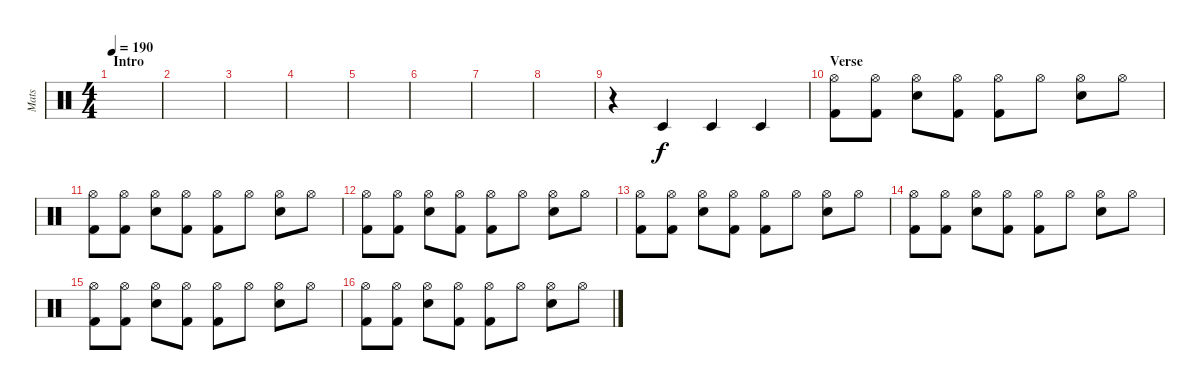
\track ("Mats" "Mats") {instrument percussion}
\staff {score}
\articulation defaults
\ts (4 4)
\section ("" "Intro")
\tempo 190
\clef neutral
\ks c
|
|
|
|
|
|
|
|
r.4 "Timbale low (hit)".4 "Timbale low (hit)".4 "Timbale low (hit)".4 |
\section ("" "Verse")
("Hi-Hat (open)" "Kick (hit) 2").8 ("Hi-Hat (open)" "Kick (hit) 2").8 ("Hi-Hat (open)" "Snare (hit) 2").8 ("Hi-Hat (open)" "Kick (hit) 2").8 ("Hi-Hat (open)" "Kick (hit) 2").8 "Hi-Hat (open)".8 ("Hi-Hat (open)" "Snare (hit) 2").8 "Hi-Hat (open)".8 |
("Hi-Hat (open)" "Kick (hit) 2").8 ("Hi-Hat (open)" "Kick (hit) 2").8 ("Hi-Hat (open)" "Snare (hit) 2").8 ("Hi-Hat (open)" "Kick (hit) 2").8 ("Hi-Hat (open)" "Kick (hit) 2").8 "Hi-Hat (open)".8 ("Hi-Hat (open)" "Snare (hit) 2").8 "Hi-Hat (open)".8 |
("Hi-Hat (open)" "Kick (hit) 2").8 ("Hi-Hat (open)" "Kick (hit) 2").8 ("Hi-Hat (open)" "Snare (hit) 2").8 ("Hi-Hat (open)" "Kick (hit) 2").8 ("Hi-Hat (open)" "Kick (hit) 2").8 "Hi-Hat (open)".8 ("Hi-Hat (open)" "Snare (hit) 2").8 "Hi-Hat (open)".8 |
("Hi-Hat (open)" "Kick (hit) 2").8 ("Hi-Hat (open)" "Kick (hit) 2").8 ("Hi-Hat (open)" "Snare (hit) 2").8 ("Hi-Hat (open)" "Kick (hit) 2").8 ("Hi-Hat (open)" "Kick (hit) 2").8 "Hi-Hat (open)".8 ("Hi-Hat (open)" "Snare (hit) 2").8 "Hi-Hat (open)".8 |
("Hi-Hat (open)" "Kick (hit) 2").8 ("Hi-Hat (open)" "Kick (hit) 2").8 ("Hi-Hat (open)" "Snare (hit) 2").8 ("Hi-Hat (open)" "Kick (hit) 2").8 ("Hi-Hat (open)" "Kick (hit) 2").8 "Hi-Hat (open)".8 ("Hi-Hat (open)" "Snare (hit) 2").8 "Hi-Hat (open)".8 |
("Hi-Hat (open)" "Kick (hit) 2").8 ("Hi-Hat (open)" "Kick (hit) 2").8 ("Hi-Hat (open)" "Snare (hit) 2").8 ("Hi-Hat (open)" "Kick (hit) 2").8 ("Hi-Hat (open)" "Kick (hit) 2").8 "Hi-Hat (open)".8 ("Hi-Hat (open)" "Snare (hit) 2").8 "Hi-Hat (open)".8 |
("Hi-Hat (open)" "Kick (hit) 2").8 ("Hi-Hat (open)" "Kick (hit) 2").8 ("Hi-Hat (open)" "Snare (hit) 2").8 ("Hi-Hat (open)" "Kick (hit) 2").8 ("Hi-Hat (open)" "Kick (hit) 2").8 "Hi-Hat (open)".8 ("Hi-Hat (open)" "Snare (hit) 2").8 "Hi-Hat (open)".8
